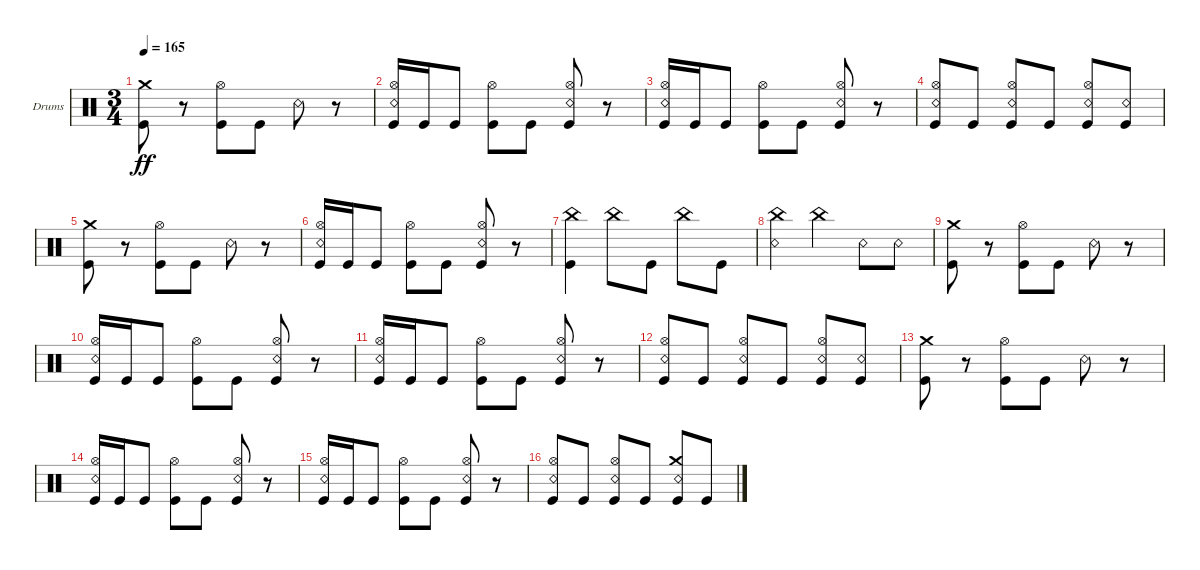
\bracketExtendMode groupsimilarinstruments
\firstSystemTrackNameOrientation horizontal
\otherSystemsTrackNameOrientation horizontal
\track ("Kaleb - Drums" "Drums") {instrument percussion}
\staff {score}
\articulation defaults
\ts (3 4)
\tempo 165
\clef neutral
\ks c
("Kick (hit)" "Crash medium (hit)").8{dy ff} r.8 ("Kick (hit)" "Hi-Hat (open)").8 "Kick (hit)".8 "Snare (rim shot)".8 r.8 |
("Kick (hit)" "Hi-Hat (open)" "Snare (rim shot)").16 "Kick (hit)".16 "Kick (hit)".8 ("Kick (hit)" "Hi-Hat (open)").8 "Kick (hit)".8 ("Kick (hit)" "Hi-Hat (open)" "Snare (rim shot)").8 r.8 |
("Kick (hit)" "Hi-Hat (open)" "Snare (rim shot)").16 "Kick (hit)".16 "Kick (hit)".8 ("Kick (hit)" "Hi-Hat (open)").8 "Kick (hit)".8 ("Kick (hit)" "Hi-Hat (open)" "Snare (rim shot)").8 r.8 |
("Kick (hit)" "Snare (rim shot)" "Hi-Hat (open)").8 "Kick (hit)".8 ("Kick (hit)" "Snare (rim shot)" "Hi-Hat (open)").8 "Kick (hit)".8 ("Kick (hit)" "Snare (rim shot)" "Hi-Hat (open)").8 ("Kick (hit)" "Snare (rim shot)").8 |
("Kick (hit)" "Crash medium (hit)").8 r.8 ("Kick (hit)" "Hi-Hat (open)").8 "Kick (hit)".8 "Snare (rim shot)".8 r.8 |
("Kick (hit)" "Hi-Hat (open)" "Snare (rim shot)").16 "Kick (hit)".16 "Kick (hit)".8 ("Kick (hit)" "Hi-Hat (open)").8 "Kick (hit)".8 ("Kick (hit)" "Hi-Hat (open)" "Snare (rim shot)").8 r.8 |
("China (hit)" "Kick (hit)").4 "China (hit)".8 "Kick (hit)".8 "China (hit)".8 "Kick (hit)".8 |
("China (hit)" "Snare (rim shot)").4 "China (hit)".4 "Snare (rim shot)".8 "Snare (rim shot)".8 |
("Kick (hit)" "Crash medium (hit)").8 r.8 ("Kick (hit)" "Hi-Hat (open)").8 "Kick (hit)".8 "Snare (rim shot)".8 r.8 |
("Kick (hit)" "Hi-Hat (open)" "Snare (rim shot)").16 "Kick (hit)".16 "Kick (hit)".8 ("Kick (hit)" "Hi-Hat (open)").8 "Kick (hit)".8 ("Kick (hit)" "Hi-Hat (open)" "Snare (rim shot)").8 r.8 |
("Kick (hit)" "Hi-Hat (open)" "Snare (rim shot)").16 "Kick (hit)".16 "Kick (hit)".8 ("Kick (hit)" "Hi-Hat (open)").8 "Kick (hit)".8 ("Kick (hit)" "Hi-Hat (open)" "Snare (rim shot)").8 r.8 |
("Kick (hit)" "Snare (rim shot)" "Hi-Hat (open)").8 "Kick (hit)".8 ("Kick (hit)" "Snare (rim shot)" "Hi-Hat (open)").8 "Kick (hit)".8 ("Kick (hit)" "Snare (rim shot)" "Hi-Hat (open)").8 ("Kick (hit)" "Snare (rim shot)").8 |
("Kick (hit)" "Crash medium (hit)").8 r.8 ("Kick (hit)" "Hi-Hat (open)").8 "Kick (hit)".8 "Snare (rim shot)".8 r.8 |
("Kick (hit)" "Hi-Hat (open)" "Snare (rim shot)").16 "Kick (hit)".16 "Kick (hit)".8 ("Kick (hit)" "Hi-Hat (open)").8 "Kick (hit)".8 ("Kick (hit)" "Hi-Hat (open)" "Snare (rim shot)").8 r.8 |
("Kick (hit)" "Hi-Hat (open)" "Snare (rim shot)").16 "Kick (hit)".16 "Kick (hit)".8 ("Kick (hit)" "Hi-Hat (open)").8 "Kick (hit)".8 ("Kick (hit)" "Hi-Hat (open)" "Snare (rim shot)").8 r.8 |
("Kick (hit)" "Snare (rim shot)" "Hi-Hat (open)").8 "Kick (hit)".8 ("Kick (hit)" "Snare (rim shot)" "Hi-Hat (open)").8 "Kick (hit)".8 ("Kick (hit)" "Snare (rim shot)" "Crash medium (hit)").8 "Kick (hit)".8
